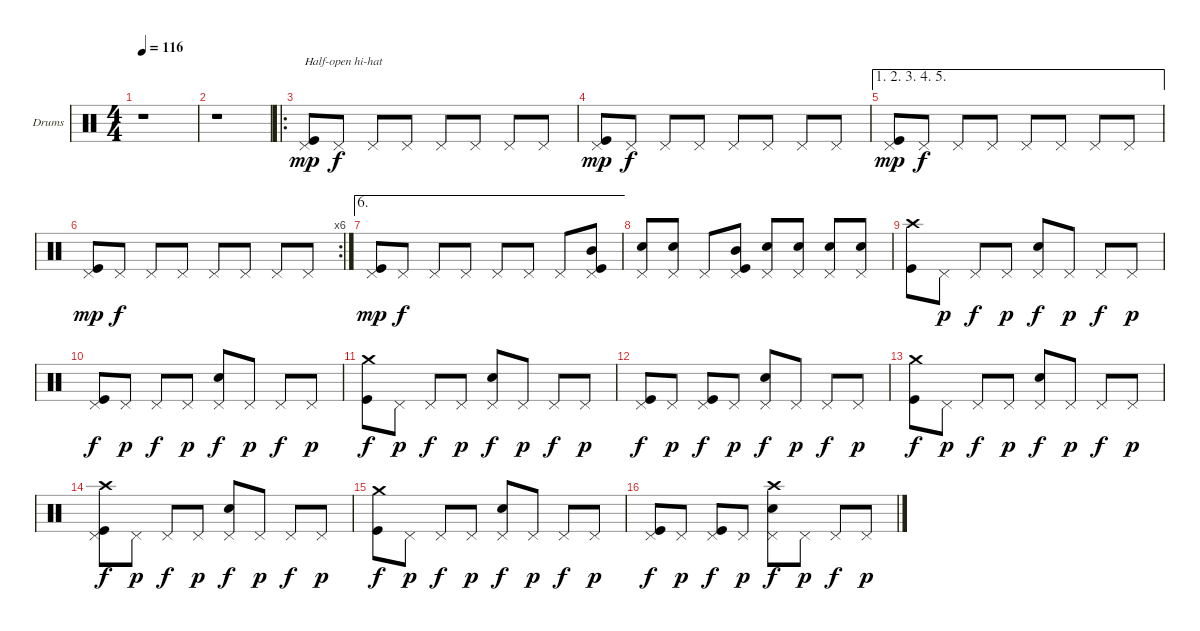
\bracketExtendMode nobrackets
\firstSystemTrackNameOrientation horizontal
\otherSystemsTrackNameOrientation horizontal
\track ("Drumkit" "Drums") {instrument percussion}
\staff {score}
\articulation defaults
\ts (4 4)
\beaming (8 2 2 2 2)
\tempo 116
\clef neutral
\ks c
r.1{dy mp} |
r.1 |
\ro
("Kick (hit)" "Pedal Hi-Hat (hit)").8{txt "Half-open hi-hat"} "Pedal Hi-Hat (hit)".8{dy f} "Pedal Hi-Hat (hit)".8 "Pedal Hi-Hat (hit)".8 "Pedal Hi-Hat (hit)".8 "Pedal Hi-Hat (hit)".8 "Pedal Hi-Hat (hit)".8 "Pedal Hi-Hat (hit)".8 |
("Kick (hit)" "Pedal Hi-Hat (hit)").8{dy mp} "Pedal Hi-Hat (hit)".8{dy f} "Pedal Hi-Hat (hit)".8 "Pedal Hi-Hat (hit)".8 "Pedal Hi-Hat (hit)".8 "Pedal Hi-Hat (hit)".8 "Pedal Hi-Hat (hit)".8 "Pedal Hi-Hat (hit)".8 |
\ae (1 2 3 4 5)
("Kick (hit)" "Pedal Hi-Hat (hit)").8{dy mp} "Pedal Hi-Hat (hit)".8{dy f} "Pedal Hi-Hat (hit)".8 "Pedal Hi-Hat (hit)".8 "Pedal Hi-Hat (hit)".8 "Pedal Hi-Hat (hit)".8 "Pedal Hi-Hat (hit)".8 "Pedal Hi-Hat (hit)".8 |
\rc 6
("Kick (hit)" "Pedal Hi-Hat (hit)").8{dy mp} "Pedal Hi-Hat (hit)".8{dy f} "Pedal Hi-Hat (hit)".8 "Pedal Hi-Hat (hit)".8 "Pedal Hi-Hat (hit)".8 "Pedal Hi-Hat (hit)".8 "Pedal Hi-Hat (hit)".8 "Pedal Hi-Hat (hit)".8 |
\ae 6
("Kick (hit)" "Pedal Hi-Hat (hit)").8{dy mp} "Pedal Hi-Hat (hit)".8{dy f} "Pedal Hi-Hat (hit)".8 "Pedal Hi-Hat (hit)".8 "Pedal Hi-Hat (hit)".8 "Pedal Hi-Hat (hit)".8 "Pedal Hi-Hat (hit)".8 ("Kick (hit)" "Mid Tom (hit)" "Pedal Hi-Hat (hit)").8 |
("Pedal Hi-Hat (hit)" "Snare (hit) 2").8 ("Pedal Hi-Hat (hit)" "Snare (hit) 2").8 "Pedal Hi-Hat (hit)".8 ("Kick (hit)" "Mid Tom (hit)" "Pedal Hi-Hat (hit)").8 ("Pedal Hi-Hat (hit)" "Snare (hit) 2").8 ("Pedal Hi-Hat (hit)" "Snare (hit) 2").8 ("Pedal Hi-Hat (hit)" "Snare (hit) 2").8 ("Pedal Hi-Hat (hit)" "Snare (hit) 2").8 |
("Kick (hit)" "Crash high (hit)").8 "Pedal Hi-Hat (hit)".8{dy p} "Pedal Hi-Hat (hit)".8{dy f} "Pedal Hi-Hat (hit)".8{dy p} ("Pedal Hi-Hat (hit)" "Snare (hit) 2").8{dy f} "Pedal Hi-Hat (hit)".8{dy p} "Pedal Hi-Hat (hit)".8{dy f} "Pedal Hi-Hat (hit)".8{dy p} |
("Kick (hit)" "Pedal Hi-Hat (hit)").8{dy f} "Pedal Hi-Hat (hit)".8{dy p} "Pedal Hi-Hat (hit)".8{dy f} "Pedal Hi-Hat (hit)".8{dy p} ("Pedal Hi-Hat (hit)" "Snare (hit) 2").8{dy f} "Pedal Hi-Hat (hit)".8{dy p} "Pedal Hi-Hat (hit)".8{dy f} "Pedal Hi-Hat (hit)".8{dy p} |
("Kick (hit)" "Crash medium (hit)").8{dy f} "Pedal Hi-Hat (hit)".8{dy p} "Pedal Hi-Hat (hit)".8{dy f} "Pedal Hi-Hat (hit)".8{dy p} ("Pedal Hi-Hat (hit)" "Snare (hit) 2").8{dy f} "Pedal Hi-Hat (hit)".8{dy p} "Pedal Hi-Hat (hit)".8{dy f} "Pedal Hi-Hat (hit)".8{dy p} |
("Kick (hit)" "Pedal Hi-Hat (hit)").8{dy f} "Pedal Hi-Hat (hit)".8{dy p} ("Kick (hit)" "Pedal Hi-Hat (hit)").8{dy f} "Pedal Hi-Hat (hit)".8{dy p} ("Pedal Hi-Hat (hit)" "Snare (hit) 2").8{dy f} "Pedal Hi-Hat (hit)".8{dy p} "Pedal Hi-Hat (hit)".8{dy f} "Pedal Hi-Hat (hit)".8{dy p} |
("Kick (hit)" "Crash medium (hit)").8{dy f} "Pedal Hi-Hat (hit)".8{dy p} "Pedal Hi-Hat (hit)".8{dy f} "Pedal Hi-Hat (hit)".8{dy p} ("Pedal Hi-Hat (hit)" "Snare (hit) 2").8{dy f} "Pedal Hi-Hat (hit)".8{dy p} "Pedal Hi-Hat (hit)".8{dy f} "Pedal Hi-Hat (hit)".8{dy p} |
("Kick (hit)" "Crash high (hit)" "Pedal Hi-Hat (hit)").8{dy f} "Pedal Hi-Hat (hit)".8{dy p} "Pedal Hi-Hat (hit)".8{dy f} "Pedal Hi-Hat (hit)".8{dy p} ("Pedal Hi-Hat (hit)" "Snare (hit) 2").8{dy f} "Pedal Hi-Hat (hit)".8{dy p} "Pedal Hi-Hat (hit)".8{dy f} "Pedal Hi-Hat (hit)".8{dy p} |
("Kick (hit)" "Crash medium (hit)").8{dy f} "Pedal Hi-Hat (hit)".8{dy p} "Pedal Hi-Hat (hit)".8{dy f} "Pedal Hi-Hat (hit)".8{dy p} ("Pedal Hi-Hat (hit)" "Snare (hit) 2").8{dy f} "Pedal Hi-Hat (hit)".8{dy p} "Pedal Hi-Hat (hit)".8{dy f} "Pedal Hi-Hat (hit)".8{dy p} |
("Kick (hit)" "Pedal Hi-Hat (hit)").8{dy f} "Pedal Hi-Hat (hit)".8{dy p} ("Kick (hit)" "Pedal Hi-Hat (hit)").8{dy f} "Pedal Hi-Hat (hit)".8{dy p} ("Crash high (hit)" "Pedal Hi-Hat (hit)" "Snare (hit) 2").8{dy f} "Pedal Hi-Hat (hit)".8{dy p} "Pedal Hi-Hat (hit)".8{dy f} "Pedal Hi-Hat (hit)".8{dy p}
